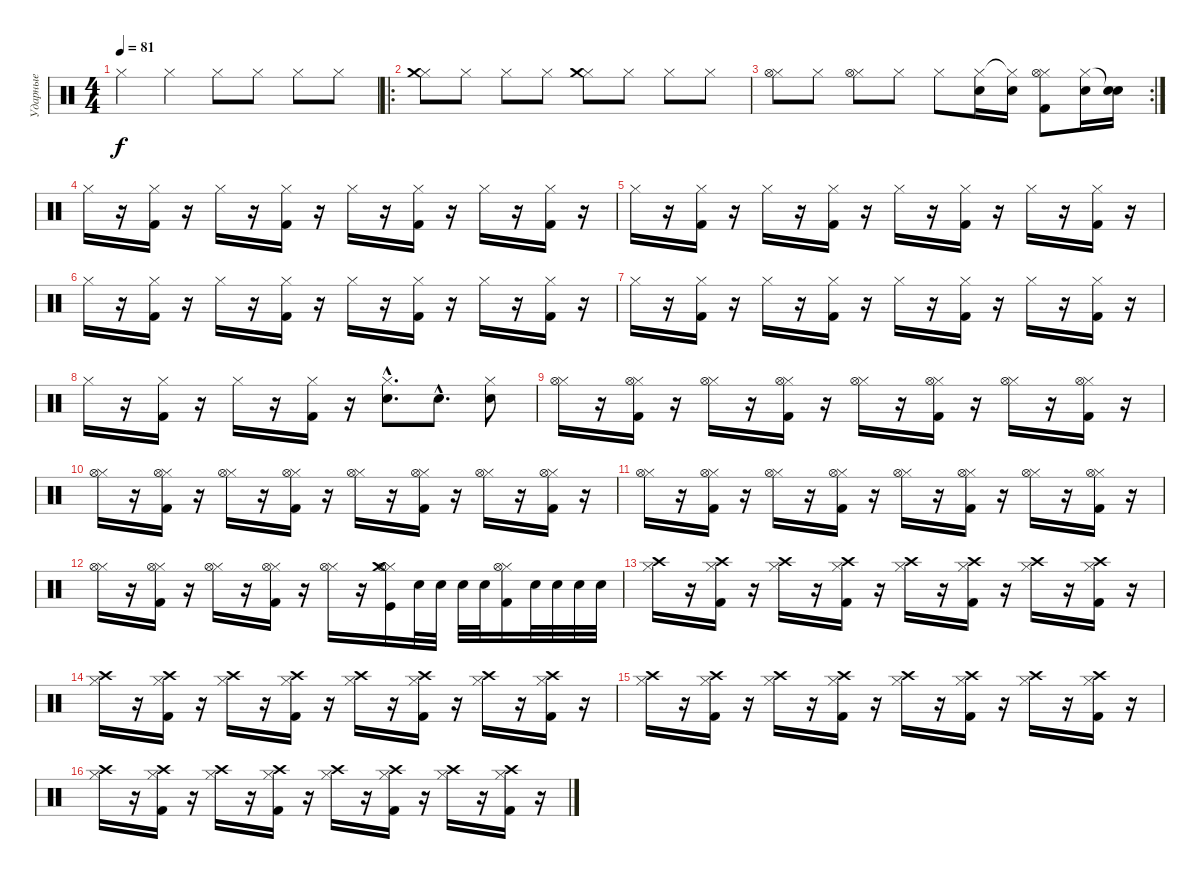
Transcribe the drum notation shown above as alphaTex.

\track ("Ударные" "Ударные") {instrument percussion}
\staff {score}
\articulation defaults
\ts (4 4)
\tempo 81
\clef neutral
\ks c "Hi-Hat (closed)".4{dy f} "Hi-Hat (closed)".4 "Hi-Hat (closed)".8 "Hi-Hat (closed)".8 "Hi-Hat (closed)".8 "Hi-Hat (closed)".8
|
\ro
("Hi-Hat (closed)" "Crash medium (hit)").8 "Hi-Hat (closed)".8 "Hi-Hat (closed)".8 "Hi-Hat (closed)".8 ("Hi-Hat (closed)" "Crash medium (hit)").8 "Hi-Hat (closed)".8 "Hi-Hat (closed)".8 "Hi-Hat (closed)".8 |
\rc 2
("Hi-Hat (closed)" "Hi-Hat (open)").8 "Hi-Hat (closed)".8 ("Hi-Hat (closed)" "Hi-Hat (open)").8 "Hi-Hat (closed)".8 "Hi-Hat (closed)".8 ("Hi-Hat (closed)" "Snare (hit) 2").16 ("Hi-Hat (closed)"{t} "Snare (hit) 2").16 ("Hi-Hat (closed)" "Kick (hit) 2" "Hi-Hat (open)").8 ("Hi-Hat (closed)" "Snare (hit) 2").16 ("Snare (hit)"{t} "Snare (hit) 2").16 |
"Hi-Hat (closed)".16 r.16 ("Kick (hit) 2" "Hi-Hat (closed)").16 r.16 "Hi-Hat (closed)".16 r.16 ("Kick (hit) 2" "Hi-Hat (closed)").16 r.16 "Hi-Hat (closed)".16 r.16 ("Kick (hit) 2" "Hi-Hat (closed)").16 r.16 "Hi-Hat (closed)".16 r.16 ("Kick (hit) 2" "Hi-Hat (closed)").16 r.16 |
"Hi-Hat (closed)".16 r.16 ("Kick (hit) 2" "Hi-Hat (closed)").16 r.16 "Hi-Hat (closed)".16 r.16 ("Kick (hit) 2" "Hi-Hat (closed)").16 r.16 "Hi-Hat (closed)".16 r.16 ("Kick (hit) 2" "Hi-Hat (closed)").16 r.16 "Hi-Hat (closed)".16 r.16 ("Kick (hit) 2" "Hi-Hat (closed)").16 r.16 |
"Hi-Hat (closed)".16 r.16 ("Kick (hit) 2" "Hi-Hat (closed)").16 r.16 "Hi-Hat (closed)".16 r.16 ("Kick (hit) 2" "Hi-Hat (closed)").16 r.16 "Hi-Hat (closed)".16 r.16 ("Kick (hit) 2" "Hi-Hat (closed)").16 r.16 "Hi-Hat (closed)".16 r.16 ("Kick (hit) 2" "Hi-Hat (closed)").16 r.16 |
"Hi-Hat (closed)".16 r.16 ("Kick (hit) 2" "Hi-Hat (closed)").16 r.16 "Hi-Hat (closed)".16 r.16 ("Kick (hit) 2" "Hi-Hat (closed)").16 r.16 "Hi-Hat (closed)".16 r.16 ("Kick (hit) 2" "Hi-Hat (closed)").16 r.16 "Hi-Hat (closed)".16 r.16 ("Kick (hit) 2" "Hi-Hat (closed)").16 r.16 |
"Hi-Hat (closed)".16 r.16 ("Kick (hit) 2" "Hi-Hat (closed)").16 r.16 "Hi-Hat (closed)".16 r.16 ("Kick (hit) 2" "Hi-Hat (closed)").16 r.16 ("Snare (hit) 2"{hac} "Hi-Hat (closed)"{hac}).8{d} "Snare (hit) 2"{hac}.8{d} ("Snare (hit) 2" "Hi-Hat (closed)").8 |
("Hi-Hat (closed)" "Hi-Hat (open)").16 r.16 ("Hi-Hat (closed)" "Kick (hit) 2" "Hi-Hat (open)").16 r.16 ("Hi-Hat (closed)" "Hi-Hat (open)").16 r.16 ("Hi-Hat (closed)" "Kick (hit) 2" "Hi-Hat (open)").16 r.16 ("Hi-Hat (closed)" "Hi-Hat (open)").16 r.16 ("Hi-Hat (closed)" "Kick (hit) 2" "Hi-Hat (open)").16 r.16 ("Hi-Hat (closed)" "Hi-Hat (open)").16 r.16 ("Hi-Hat (closed)" "Kick (hit) 2" "Hi-Hat (open)").16 r.16 |
("Hi-Hat (closed)" "Hi-Hat (open)").16 r.16 ("Hi-Hat (closed)" "Kick (hit) 2" "Hi-Hat (open)").16 r.16 ("Hi-Hat (closed)" "Hi-Hat (open)").16 r.16 ("Hi-Hat (closed)" "Kick (hit) 2" "Hi-Hat (open)").16 r.16 ("Hi-Hat (closed)" "Hi-Hat (open)").16 r.16 ("Hi-Hat (closed)" "Kick (hit) 2" "Hi-Hat (open)").16 r.16 ("Hi-Hat (closed)" "Hi-Hat (open)").16 r.16 ("Hi-Hat (closed)" "Kick (hit) 2" "Hi-Hat (open)").16 r.16 |
("Hi-Hat (closed)" "Hi-Hat (open)").16 r.16 ("Hi-Hat (closed)" "Kick (hit) 2" "Hi-Hat (open)").16 r.16 ("Hi-Hat (closed)" "Hi-Hat (open)").16 r.16 ("Hi-Hat (closed)" "Kick (hit) 2" "Hi-Hat (open)").16 r.16 ("Hi-Hat (closed)" "Hi-Hat (open)").16 r.16 ("Hi-Hat (closed)" "Kick (hit) 2" "Hi-Hat (open)").16 r.16 ("Hi-Hat (closed)" "Hi-Hat (open)").16 r.16 ("Hi-Hat (closed)" "Kick (hit) 2" "Hi-Hat (open)").16 r.16 |
("Hi-Hat (closed)" "Hi-Hat (open)").16 r.16 ("Hi-Hat (closed)" "Kick (hit) 2" "Hi-Hat (open)").16 r.16 ("Hi-Hat (closed)" "Hi-Hat (open)").16 r.16 ("Hi-Hat (closed)" "Kick (hit) 2" "Hi-Hat (open)").16 r.16 ("Hi-Hat (closed)" "Hi-Hat (open)").16 r.16 ("Hi-Hat (closed)" "Kick (hit)" "Hi-Hat (open)" "Crash medium (hit)").16 "Snare (hit) 2".32 "Snare (hit) 2".32 "Snare (hit) 2".32 "Snare (hit) 2".32 ("Hi-Hat (closed)" "Kick (hit) 2" "Hi-Hat (open)").16 "Snare (hit) 2".32 "Snare (hit) 2".32 "Snare (hit) 2".32 "Snare (hit) 2".32 |
("Hi-Hat (closed)" "Crash high (hit)").16 r.16 ("Hi-Hat (closed)" "Kick (hit) 2" "Crash high (hit)").16 r.16 ("Hi-Hat (closed)" "Crash high (hit)").16 r.16 ("Hi-Hat (closed)" "Kick (hit) 2" "Crash high (hit)").16 r.16 ("Hi-Hat (closed)" "Crash high (hit)").16 r.16 ("Hi-Hat (closed)" "Kick (hit) 2" "Crash high (hit)").16 r.16 ("Hi-Hat (closed)" "Crash high (hit)").16 r.16 ("Hi-Hat (closed)" "Kick (hit) 2" "Crash high (hit)").16 r.16 |
("Hi-Hat (closed)" "Crash high (hit)").16 r.16 ("Hi-Hat (closed)" "Kick (hit) 2" "Crash high (hit)").16 r.16 ("Hi-Hat (closed)" "Crash high (hit)").16 r.16 ("Hi-Hat (closed)" "Kick (hit) 2" "Crash high (hit)").16 r.16 ("Hi-Hat (closed)" "Crash high (hit)").16 r.16 ("Hi-Hat (closed)" "Kick (hit) 2" "Crash high (hit)").16 r.16 ("Hi-Hat (closed)" "Crash high (hit)").16 r.16 ("Hi-Hat (closed)" "Kick (hit) 2" "Crash high (hit)").16 r.16 |
("Hi-Hat (closed)" "Crash high (hit)").16 r.16 ("Hi-Hat (closed)" "Kick (hit) 2" "Crash high (hit)").16 r.16 ("Hi-Hat (closed)" "Crash high (hit)").16 r.16 ("Hi-Hat (closed)" "Kick (hit) 2" "Crash high (hit)").16 r.16 ("Hi-Hat (closed)" "Crash high (hit)").16 r.16 ("Hi-Hat (closed)" "Kick (hit) 2" "Crash high (hit)").16 r.16 ("Hi-Hat (closed)" "Crash high (hit)").16 r.16 ("Hi-Hat (closed)" "Kick (hit) 2" "Crash high (hit)").16 r.16 |
("Hi-Hat (closed)" "Crash high (hit)").16 r.16 ("Hi-Hat (closed)" "Kick (hit) 2" "Crash high (hit)").16 r.16 ("Hi-Hat (closed)" "Crash high (hit)").16 r.16 ("Hi-Hat (closed)" "Kick (hit) 2" "Crash high (hit)").16 r.16 ("Hi-Hat (closed)" "Crash high (hit)").16 r.16 ("Hi-Hat (closed)" "Kick (hit) 2" "Crash high (hit)").16 r.16 ("Hi-Hat (closed)" "Crash high (hit)").16 r.16 ("Hi-Hat (closed)" "Kick (hit) 2" "Crash high (hit)").16 r.16
